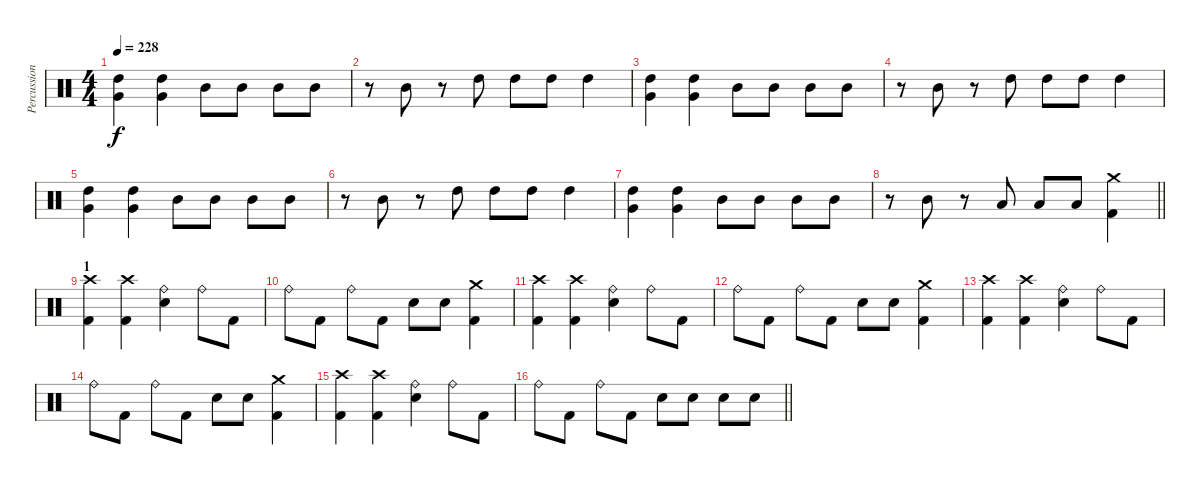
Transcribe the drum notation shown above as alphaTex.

\track ("Percussion" "Percussion") {instrument percussion}
\staff {score}
\articulation defaults
\ts (4 4)
\tempo 228
\tempo 223
\tempo 228
\clef neutral
\ks c
("High Tom (hit)" "Very Low Tom (hit)").4{dy f} ("High Tom (hit)" "Very Low Tom (hit)").4 "Mid Tom (hit)".8 "Mid Tom (hit)".8 "Mid Tom (hit)".8 "Mid Tom (hit)".8 |
r.8 "Mid Tom (hit)".8 r.8 "High Tom (hit)".8 "High Tom (hit)".8 "High Tom (hit)".8 "High Tom (hit)".4 |
("High Tom (hit)" "Very Low Tom (hit)").4 ("High Tom (hit)" "Very Low Tom (hit)").4 "Mid Tom (hit)".8 "Mid Tom (hit)".8 "Mid Tom (hit)".8 "Mid Tom (hit)".8 |
r.8 "Mid Tom (hit)".8 r.8 "High Tom (hit)".8 "High Tom (hit)".8 "High Tom (hit)".8 "High Tom (hit)".4 |
("High Tom (hit)" "Very Low Tom (hit)").4 ("High Tom (hit)" "Very Low Tom (hit)").4 "Mid Tom (hit)".8 "Mid Tom (hit)".8 "Mid Tom (hit)".8 "Mid Tom (hit)".8 |
r.8 "Mid Tom (hit)".8 r.8 "High Tom (hit)".8 "High Tom (hit)".8 "High Tom (hit)".8 "High Tom (hit)".4 |
("High Tom (hit)" "Very Low Tom (hit)").4 ("High Tom (hit)" "Very Low Tom (hit)").4 "Mid Tom (hit)".8 "Mid Tom (hit)".8 "Mid Tom (hit)".8 "Mid Tom (hit)".8 |
\barLineRight lightlight
r.8 "Mid Tom (hit)".8 r.8 "Low Tom (hit)".8 "Low Tom (hit)".8 "Low Tom (hit)".8 ("Crash medium (hit)" "Kick (hit) 2").4 |
\section ("" "1")
("Crash high (hit)" "Kick (hit) 2").4 ("Crash high (hit)" "Kick (hit) 2").4 ("Ride (bell)" "Snare (hit) 2").4 "Ride (bell)".8 "Kick (hit) 2".8 |
"Ride (bell)".8 "Kick (hit) 2".8 "Ride (bell)".8 "Kick (hit) 2".8 "Snare (hit) 2".8 "Snare (hit) 2".8 ("Crash medium (hit)" "Kick (hit) 2").4 |
("Crash high (hit)" "Kick (hit) 2").4 ("Crash high (hit)" "Kick (hit) 2").4 ("Ride (bell)" "Snare (hit) 2").4 "Ride (bell)".8 "Kick (hit) 2".8 |
"Ride (bell)".8 "Kick (hit) 2".8 "Ride (bell)".8 "Kick (hit) 2".8 "Snare (hit) 2".8 "Snare (hit) 2".8 ("Crash medium (hit)" "Kick (hit) 2").4 |
("Crash high (hit)" "Kick (hit) 2").4 ("Crash high (hit)" "Kick (hit) 2").4 ("Ride (bell)" "Snare (hit) 2").4 "Ride (bell)".8 "Kick (hit) 2".8 |
"Ride (bell)".8 "Kick (hit) 2".8 "Ride (bell)".8 "Kick (hit) 2".8 "Snare (hit) 2".8 "Snare (hit) 2".8 ("Crash medium (hit)" "Kick (hit) 2").4 |
("Crash high (hit)" "Kick (hit) 2").4 ("Crash high (hit)" "Kick (hit) 2").4 ("Ride (bell)" "Snare (hit) 2").4 "Ride (bell)".8 "Kick (hit) 2".8 |
\barLineRight lightlight "Ride (bell)".8 "Kick (hit) 2".8 "Ride (bell)".8 "Kick (hit) 2".8 "Snare (hit) 2".8 "Snare (hit) 2".8 "Snare (hit) 2".8 "Snare (hit) 2".8
